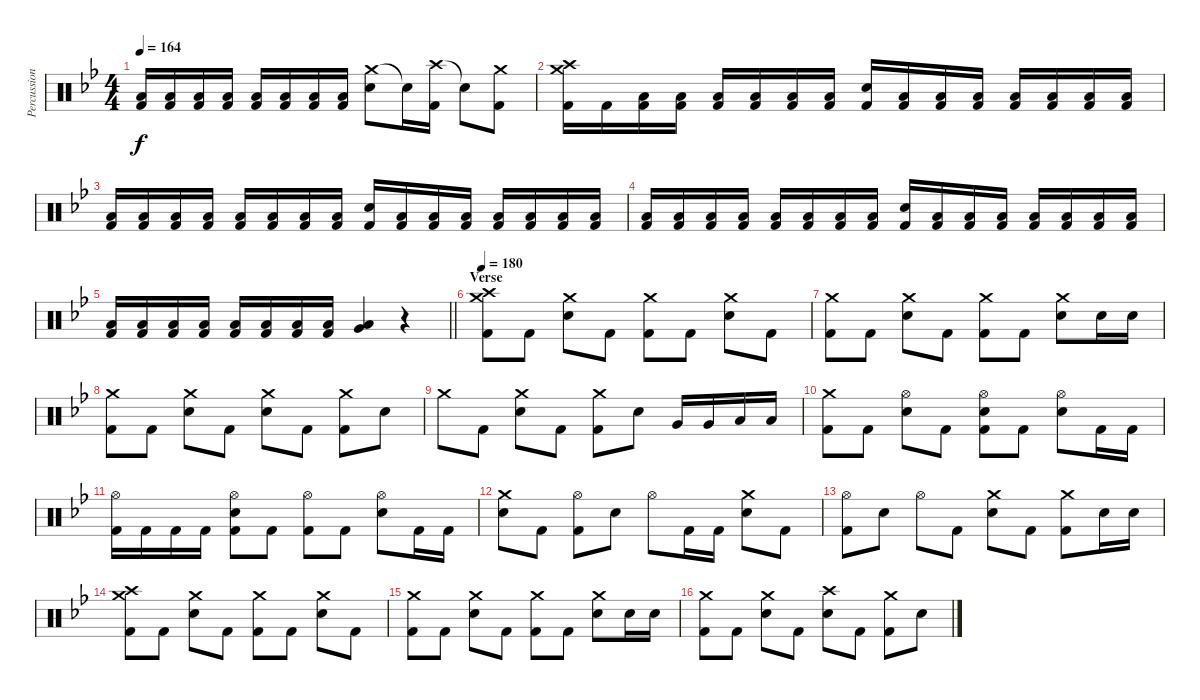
\track ("Percussion" "Percussion") {instrument percussion}
\staff {score}
\articulation defaults
\ts (4 4)
\tempo 164
\clef neutral
\ks bb
("Low Floor Tom (hit)" "Kick (hit) 2").16{dy f} ("Low Floor Tom (hit)" "Kick (hit) 2").16 ("Low Floor Tom (hit)" "Kick (hit) 2").16 ("Low Floor Tom (hit)" "Kick (hit) 2").16 ("Low Floor Tom (hit)" "Kick (hit) 2").16 ("Low Floor Tom (hit)" "Kick (hit) 2").16 ("Low Floor Tom (hit)" "Kick (hit) 2").16 ("Low Floor Tom (hit)" "Kick (hit) 2").16 ("Crash medium (hit)" "Electric Snare (hit)").8 "Electric Snare (hit)"{t}.16 ("Crash high (hit)" "Kick (hit) 2").16 "Electric Snare (hit)"{t}.8 ("Crash medium (hit)" "Kick (hit) 2").8 |
("Crash medium (hit)" "Crash high (hit)" "Kick (hit) 2").16 "Kick (hit) 2".16 ("Low Floor Tom (hit)" "Kick (hit) 2").16 ("Low Floor Tom (hit)" "Kick (hit) 2").16 ("Low Floor Tom (hit)" "Kick (hit) 2").16 ("Low Floor Tom (hit)" "Kick (hit) 2").16 ("Low Floor Tom (hit)" "Kick (hit) 2").16 ("Low Floor Tom (hit)" "Kick (hit) 2").16 ("Electric Snare (hit)" "Kick (hit) 2").16 ("Low Floor Tom (hit)" "Kick (hit) 2").16 ("Low Floor Tom (hit)" "Kick (hit) 2").16 ("Low Floor Tom (hit)" "Kick (hit) 2").16 ("Low Floor Tom (hit)" "Kick (hit) 2").16 ("Low Floor Tom (hit)" "Kick (hit) 2").16 ("Low Floor Tom (hit)" "Kick (hit) 2").16 ("Low Floor Tom (hit)" "Kick (hit) 2").16 |
("Low Floor Tom (hit)" "Kick (hit) 2").16 ("Low Floor Tom (hit)" "Kick (hit) 2").16 ("Low Floor Tom (hit)" "Kick (hit) 2").16 ("Low Floor Tom (hit)" "Kick (hit) 2").16 ("Low Floor Tom (hit)" "Kick (hit) 2").16 ("Low Floor Tom (hit)" "Kick (hit) 2").16 ("Low Floor Tom (hit)" "Kick (hit) 2").16 ("Low Floor Tom (hit)" "Kick (hit) 2").16 ("Electric Snare (hit)" "Kick (hit) 2").16 ("Low Floor Tom (hit)" "Kick (hit) 2").16 ("Low Floor Tom (hit)" "Kick (hit) 2").16 ("Low Floor Tom (hit)" "Kick (hit) 2").16 ("Low Floor Tom (hit)" "Kick (hit) 2").16 ("Low Floor Tom (hit)" "Kick (hit) 2").16 ("Low Floor Tom (hit)" "Kick (hit) 2").16 ("Low Floor Tom (hit)" "Kick (hit) 2").16 |
("Low Floor Tom (hit)" "Kick (hit) 2").16 ("Low Floor Tom (hit)" "Kick (hit) 2").16 ("Low Floor Tom (hit)" "Kick (hit) 2").16 ("Low Floor Tom (hit)" "Kick (hit) 2").16 ("Low Floor Tom (hit)" "Kick (hit) 2").16 ("Low Floor Tom (hit)" "Kick (hit) 2").16 ("Low Floor Tom (hit)" "Kick (hit) 2").16 ("Low Floor Tom (hit)" "Kick (hit) 2").16 ("Electric Snare (hit)" "Kick (hit) 2").16 ("Low Floor Tom (hit)" "Kick (hit) 2").16 ("Low Floor Tom (hit)" "Kick (hit) 2").16 ("Low Floor Tom (hit)" "Kick (hit) 2").16 ("Low Floor Tom (hit)" "Kick (hit) 2").16 ("Low Floor Tom (hit)" "Kick (hit) 2").16 ("Low Floor Tom (hit)" "Kick (hit) 2").16 ("Low Floor Tom (hit)" "Kick (hit) 2").16 |
\barLineRight lightlight
("Low Floor Tom (hit)" "Kick (hit) 2").16 ("Low Floor Tom (hit)" "Kick (hit) 2").16 ("Low Floor Tom (hit)" "Kick (hit) 2").16 ("Low Floor Tom (hit)" "Kick (hit) 2").16 ("Low Floor Tom (hit)" "Kick (hit) 2").16 ("Low Floor Tom (hit)" "Kick (hit) 2").16 ("Low Floor Tom (hit)" "Kick (hit) 2").16 ("Low Floor Tom (hit)" "Kick (hit) 2").16 ("Very Low Tom (hit)" "Low Floor Tom (hit)").4 r.4 |
\section ("" "Verse")
\tempo 180
("Crash medium (hit)" "Crash high (hit)" "Kick (hit) 2").8 "Kick (hit) 2".8 ("Crash medium (hit)" "Electric Snare (hit)").8 "Kick (hit) 2".8 ("Crash medium (hit)" "Kick (hit) 2").8 "Kick (hit) 2".8 ("Crash medium (hit)" "Electric Snare (hit)").8 "Kick (hit) 2".8 |
("Crash medium (hit)" "Kick (hit) 2").8 "Kick (hit) 2".8 ("Crash medium (hit)" "Electric Snare (hit)").8 "Kick (hit) 2".8 ("Crash medium (hit)" "Kick (hit) 2").8 "Kick (hit) 2".8 ("Crash medium (hit)" "Electric Snare (hit)").8 "Electric Snare (hit)".16 "Electric Snare (hit)".16 |
("Crash medium (hit)" "Kick (hit) 2").8 "Kick (hit) 2".8 ("Crash medium (hit)" "Electric Snare (hit)").8 "Kick (hit) 2".8 ("Crash medium (hit)" "Electric Snare (hit)").8 "Kick (hit) 2".8 ("Crash medium (hit)" "Kick (hit) 2").8 "Electric Snare (hit)".8 |
"Crash medium (hit)".8 "Kick (hit) 2".8 ("Crash medium (hit)" "Electric Snare (hit)").8 "Kick (hit) 2".8 ("Crash medium (hit)" "Kick (hit) 2").8 "Electric Snare (hit)".8 "Very Low Tom (hit)".16 "Very Low Tom (hit)".16 "Low Floor Tom (hit)".16 "Low Floor Tom (hit)".16 |
("Crash medium (hit)" "Kick (hit) 2").8 "Kick (hit) 2".8 ("Hi-Hat (open)" "Electric Snare (hit)").8 "Kick (hit) 2".8 ("Hi-Hat (open)" "Electric Snare (hit)" "Kick (hit) 2").8 "Kick (hit) 2".8 ("Hi-Hat (open)" "Electric Snare (hit)").8 "Kick (hit) 2".16 "Kick (hit) 2".16 |
("Hi-Hat (open)" "Kick (hit) 2").16 "Kick (hit) 2".16 "Kick (hit) 2".16 "Kick (hit) 2".16 ("Hi-Hat (open)" "Electric Snare (hit)" "Kick (hit) 2").8 "Kick (hit) 2".8 ("Hi-Hat (open)" "Kick (hit) 2").8 "Kick (hit) 2".8 ("Hi-Hat (open)" "Electric Snare (hit)").8 "Kick (hit) 2".16 "Kick (hit) 2".16 |
("Crash medium (hit)" "Electric Snare (hit)").8 "Kick (hit) 2".8 ("Hi-Hat (open)" "Kick (hit) 2").8 "Electric Snare (hit)".8 "Hi-Hat (open)".8 "Kick (hit) 2".16 "Kick (hit) 2".16 ("Crash medium (hit)" "Electric Snare (hit)").8 "Kick (hit) 2".8 |
("Hi-Hat (open)" "Kick (hit) 2").8 "Electric Snare (hit)".8 "Hi-Hat (open)".8 "Kick (hit) 2".8 ("Crash medium (hit)" "Electric Snare (hit)").8 "Kick (hit) 2".8 ("Crash medium (hit)" "Kick (hit) 2").8 "Electric Snare (hit)".16 "Electric Snare (hit)".16 |
("Crash medium (hit)" "Crash high (hit)" "Kick (hit) 2").8 "Kick (hit) 2".8 ("Crash medium (hit)" "Electric Snare (hit)").8 "Kick (hit) 2".8 ("Crash medium (hit)" "Kick (hit) 2").8 "Kick (hit) 2".8 ("Crash medium (hit)" "Electric Snare (hit)").8 "Kick (hit) 2".8 |
("Crash medium (hit)" "Kick (hit) 2").8 "Kick (hit) 2".8 ("Crash medium (hit)" "Electric Snare (hit)").8 "Kick (hit) 2".8 ("Crash medium (hit)" "Kick (hit) 2").8 "Kick (hit) 2".8 ("Crash medium (hit)" "Electric Snare (hit)").8 "Electric Snare (hit)".16 "Electric Snare (hit)".16 |
("Crash medium (hit)" "Kick (hit) 2").8 "Kick (hit) 2".8 ("Crash medium (hit)" "Electric Snare (hit)").8 "Kick (hit) 2".8 ("Crash high (hit)" "Electric Snare (hit)").8 "Kick (hit) 2".8 ("Crash medium (hit)" "Kick (hit) 2").8 "Electric Snare (hit)".8
